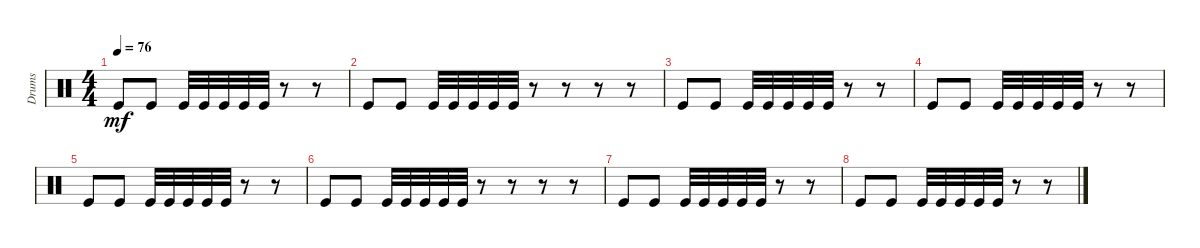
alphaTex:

\track ("Drumkit" "Drums") {instrument percussion}
\staff {score}
\articulation defaults
\ts (4 4)
\tempo 76
\clef neutral
\ks c "Kick (hit)".8{dy mf} "Kick (hit)".8 "Kick (hit)".32 "Kick (hit)".32 "Kick (hit)".32 "Kick (hit)".32 "Kick (hit)".32
r.8 r.8 |
"Kick (hit)".8 "Kick (hit)".8 "Kick (hit)".32 "Kick (hit)".32 "Kick (hit)".32 "Kick (hit)".32 "Kick (hit)".32 r.8 r.8 r.8 r.8 |
"Kick (hit)".8 "Kick (hit)".8 "Kick (hit)".32 "Kick (hit)".32 "Kick (hit)".32 "Kick (hit)".32 "Kick (hit)".32 r.8 r.8 |
"Kick (hit)".8 "Kick (hit)".8 "Kick (hit)".32 "Kick (hit)".32 "Kick (hit)".32 "Kick (hit)".32 "Kick (hit)".32 r.8 r.8 |
"Kick (hit)".8 "Kick (hit)".8 "Kick (hit)".32 "Kick (hit)".32 "Kick (hit)".32 "Kick (hit)".32 "Kick (hit)".32 r.8 r.8 |
"Kick (hit)".8 "Kick (hit)".8 "Kick (hit)".32 "Kick (hit)".32 "Kick (hit)".32 "Kick (hit)".32 "Kick (hit)".32 r.8 r.8 r.8 r.8 |
"Kick (hit)".8 "Kick (hit)".8 "Kick (hit)".32 "Kick (hit)".32 "Kick (hit)".32 "Kick (hit)".32 "Kick (hit)".32 r.8 r.8 |
"Kick (hit)".8 "Kick (hit)".8 "Kick (hit)".32 "Kick (hit)".32 "Kick (hit)".32 "Kick (hit)".32 "Kick (hit)".32 r.8 r.8
